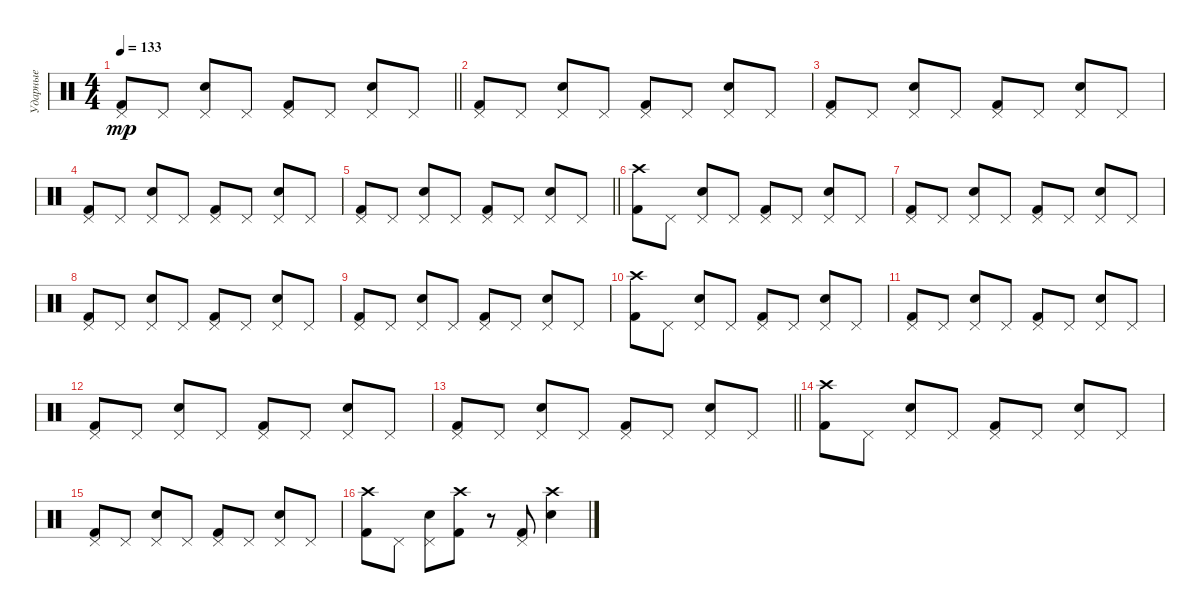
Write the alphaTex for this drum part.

\track ("Ударные" "Ударные") {instrument percussion}
\staff {score}
\articulation defaults
\ts (4 4)
\tempo 133
\clef neutral
\barLineRight lightlight
\ks c
("Kick (hit) 2" "Pedal Hi-Hat (hit)").8{dy mp} "Pedal Hi-Hat (hit)".8 ("Electric Snare (hit)" "Pedal Hi-Hat (hit)").8 "Pedal Hi-Hat (hit)".8 ("Kick (hit) 2" "Pedal Hi-Hat (hit)").8 "Pedal Hi-Hat (hit)".8 ("Electric Snare (hit)" "Pedal Hi-Hat (hit)").8 "Pedal Hi-Hat (hit)".8 |
("Kick (hit) 2" "Pedal Hi-Hat (hit)").8 "Pedal Hi-Hat (hit)".8 ("Electric Snare (hit)" "Pedal Hi-Hat (hit)").8 "Pedal Hi-Hat (hit)".8 ("Kick (hit) 2" "Pedal Hi-Hat (hit)").8 "Pedal Hi-Hat (hit)".8 ("Electric Snare (hit)" "Pedal Hi-Hat (hit)").8 "Pedal Hi-Hat (hit)".8 |
("Kick (hit) 2" "Pedal Hi-Hat (hit)").8 "Pedal Hi-Hat (hit)".8 ("Electric Snare (hit)" "Pedal Hi-Hat (hit)").8 "Pedal Hi-Hat (hit)".8 ("Kick (hit) 2" "Pedal Hi-Hat (hit)").8 "Pedal Hi-Hat (hit)".8 ("Electric Snare (hit)" "Pedal Hi-Hat (hit)").8 "Pedal Hi-Hat (hit)".8 |
("Kick (hit) 2" "Pedal Hi-Hat (hit)").8 "Pedal Hi-Hat (hit)".8 ("Electric Snare (hit)" "Pedal Hi-Hat (hit)").8 "Pedal Hi-Hat (hit)".8 ("Kick (hit) 2" "Pedal Hi-Hat (hit)").8 "Pedal Hi-Hat (hit)".8 ("Electric Snare (hit)" "Pedal Hi-Hat (hit)").8 "Pedal Hi-Hat (hit)".8 |
\barLineRight lightlight
("Kick (hit) 2" "Pedal Hi-Hat (hit)").8 "Pedal Hi-Hat (hit)".8 ("Electric Snare (hit)" "Pedal Hi-Hat (hit)").8 "Pedal Hi-Hat (hit)".8 ("Kick (hit) 2" "Pedal Hi-Hat (hit)").8 "Pedal Hi-Hat (hit)".8 ("Electric Snare (hit)" "Pedal Hi-Hat (hit)").8 "Pedal Hi-Hat (hit)".8 |
("Kick (hit) 2" "Crash high (hit)").8 "Pedal Hi-Hat (hit)".8 ("Electric Snare (hit)" "Pedal Hi-Hat (hit)").8 "Pedal Hi-Hat (hit)".8 ("Kick (hit) 2" "Pedal Hi-Hat (hit)").8 "Pedal Hi-Hat (hit)".8 ("Electric Snare (hit)" "Pedal Hi-Hat (hit)").8 "Pedal Hi-Hat (hit)".8 |
("Kick (hit) 2" "Pedal Hi-Hat (hit)").8 "Pedal Hi-Hat (hit)".8 ("Electric Snare (hit)" "Pedal Hi-Hat (hit)").8 "Pedal Hi-Hat (hit)".8 ("Kick (hit) 2" "Pedal Hi-Hat (hit)").8 "Pedal Hi-Hat (hit)".8 ("Electric Snare (hit)" "Pedal Hi-Hat (hit)").8 "Pedal Hi-Hat (hit)".8 |
("Kick (hit) 2" "Pedal Hi-Hat (hit)").8 "Pedal Hi-Hat (hit)".8 ("Electric Snare (hit)" "Pedal Hi-Hat (hit)").8 "Pedal Hi-Hat (hit)".8 ("Kick (hit) 2" "Pedal Hi-Hat (hit)").8 "Pedal Hi-Hat (hit)".8 ("Electric Snare (hit)" "Pedal Hi-Hat (hit)").8 "Pedal Hi-Hat (hit)".8 |
("Kick (hit) 2" "Pedal Hi-Hat (hit)").8 "Pedal Hi-Hat (hit)".8 ("Electric Snare (hit)" "Pedal Hi-Hat (hit)").8 "Pedal Hi-Hat (hit)".8 ("Kick (hit) 2" "Pedal Hi-Hat (hit)").8 "Pedal Hi-Hat (hit)".8 ("Electric Snare (hit)" "Pedal Hi-Hat (hit)").8 "Pedal Hi-Hat (hit)".8 |
("Kick (hit) 2" "Crash high (hit)").8 "Pedal Hi-Hat (hit)".8 ("Electric Snare (hit)" "Pedal Hi-Hat (hit)").8 "Pedal Hi-Hat (hit)".8 ("Kick (hit) 2" "Pedal Hi-Hat (hit)").8 "Pedal Hi-Hat (hit)".8 ("Electric Snare (hit)" "Pedal Hi-Hat (hit)").8 "Pedal Hi-Hat (hit)".8 |
("Kick (hit) 2" "Pedal Hi-Hat (hit)").8 "Pedal Hi-Hat (hit)".8 ("Electric Snare (hit)" "Pedal Hi-Hat (hit)").8 "Pedal Hi-Hat (hit)".8 ("Kick (hit) 2" "Pedal Hi-Hat (hit)").8 "Pedal Hi-Hat (hit)".8 ("Electric Snare (hit)" "Pedal Hi-Hat (hit)").8 "Pedal Hi-Hat (hit)".8 |
("Kick (hit) 2" "Pedal Hi-Hat (hit)").8 "Pedal Hi-Hat (hit)".8 ("Electric Snare (hit)" "Pedal Hi-Hat (hit)").8 "Pedal Hi-Hat (hit)".8 ("Kick (hit) 2" "Pedal Hi-Hat (hit)").8 "Pedal Hi-Hat (hit)".8 ("Electric Snare (hit)" "Pedal Hi-Hat (hit)").8 "Pedal Hi-Hat (hit)".8 |
\barLineRight lightlight
("Kick (hit) 2" "Pedal Hi-Hat (hit)").8 "Pedal Hi-Hat (hit)".8 ("Electric Snare (hit)" "Pedal Hi-Hat (hit)").8 "Pedal Hi-Hat (hit)".8 ("Kick (hit) 2" "Pedal Hi-Hat (hit)").8 "Pedal Hi-Hat (hit)".8 ("Electric Snare (hit)" "Pedal Hi-Hat (hit)").8 "Pedal Hi-Hat (hit)".8 |
\section ("" "")
("Kick (hit) 2" "Crash high (hit)").8 "Pedal Hi-Hat (hit)".8 ("Electric Snare (hit)" "Pedal Hi-Hat (hit)").8 "Pedal Hi-Hat (hit)".8 ("Kick (hit) 2" "Pedal Hi-Hat (hit)").8 "Pedal Hi-Hat (hit)".8 ("Electric Snare (hit)" "Pedal Hi-Hat (hit)").8 "Pedal Hi-Hat (hit)".8 |
("Kick (hit) 2" "Pedal Hi-Hat (hit)").8 "Pedal Hi-Hat (hit)".8 ("Electric Snare (hit)" "Pedal Hi-Hat (hit)").8 "Pedal Hi-Hat (hit)".8 ("Kick (hit) 2" "Pedal Hi-Hat (hit)").8 "Pedal Hi-Hat (hit)".8 ("Electric Snare (hit)" "Pedal Hi-Hat (hit)").8 "Pedal Hi-Hat (hit)".8 |
("Kick (hit) 2" "Crash high (hit)").8 "Pedal Hi-Hat (hit)".8 ("Electric Snare (hit)" "Pedal Hi-Hat (hit)").8 ("Kick (hit) 2" "Crash high (hit)").8 r.8 ("Kick (hit) 2" "Pedal Hi-Hat (hit)").8 ("Electric Snare (hit)" "Crash high (hit)").4
